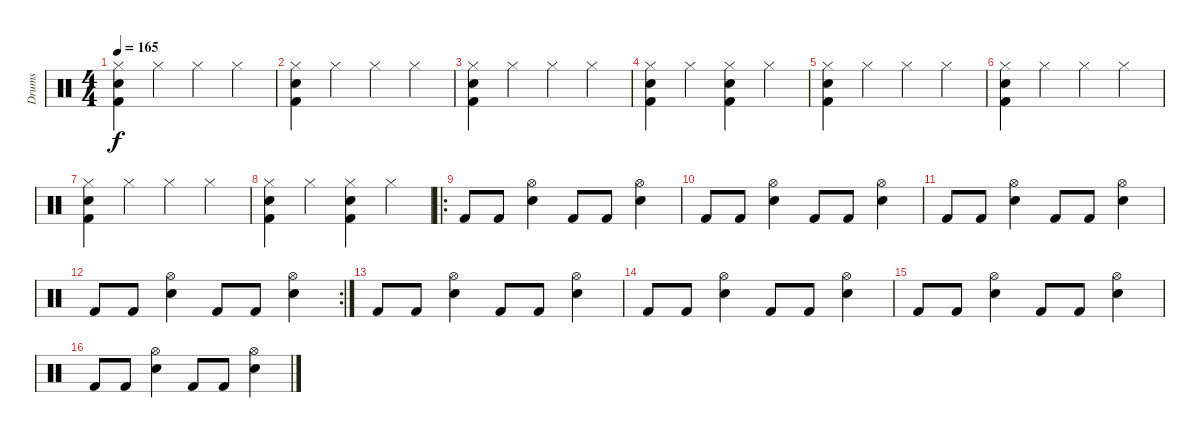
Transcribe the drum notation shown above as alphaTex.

\track ("Drums" "Drums") {instrument percussion}
\staff {score}
\articulation defaults
\ts (4 4)
\tempo 165
\clef neutral
\ks c
("Kick (hit) 2" "Snare (hit) 2" "Hi-Hat (closed)").4{dy f} "Hi-Hat (closed)".4 "Hi-Hat (closed)".4 "Hi-Hat (closed)".4 |
("Kick (hit) 2" "Snare (hit) 2" "Hi-Hat (closed)").4 "Hi-Hat (closed)".4 "Hi-Hat (closed)".4 "Hi-Hat (closed)".4 |
("Kick (hit) 2" "Snare (hit) 2" "Hi-Hat (closed)").4 "Hi-Hat (closed)".4 "Hi-Hat (closed)".4 "Hi-Hat (closed)".4 |
("Kick (hit) 2" "Snare (hit) 2" "Hi-Hat (closed)").4 "Hi-Hat (closed)".4 ("Kick (hit) 2" "Snare (hit) 2" "Hi-Hat (closed)").4 "Hi-Hat (closed)".4 |
("Kick (hit) 2" "Snare (hit) 2" "Hi-Hat (closed)").4 "Hi-Hat (closed)".4 "Hi-Hat (closed)".4 "Hi-Hat (closed)".4 |
("Kick (hit) 2" "Snare (hit) 2" "Hi-Hat (closed)").4 "Hi-Hat (closed)".4 "Hi-Hat (closed)".4 "Hi-Hat (closed)".4 |
("Kick (hit) 2" "Snare (hit) 2" "Hi-Hat (closed)").4 "Hi-Hat (closed)".4 "Hi-Hat (closed)".4 "Hi-Hat (closed)".4 |
("Kick (hit) 2" "Snare (hit) 2" "Hi-Hat (closed)").4 "Hi-Hat (closed)".4 ("Kick (hit) 2" "Snare (hit) 2" "Hi-Hat (closed)").4 "Hi-Hat (closed)".4 |
\ro "Kick (hit) 2".8 "Kick (hit) 2".8
("Snare (hit) 2" "Hi-Hat (open)").4 "Kick (hit) 2".8 "Kick (hit) 2".8 ("Snare (hit) 2" "Hi-Hat (open)").4 |
"Kick (hit) 2".8 "Kick (hit) 2".8 ("Snare (hit) 2" "Hi-Hat (open)").4 "Kick (hit) 2".8 "Kick (hit) 2".8 ("Snare (hit) 2" "Hi-Hat (open)").4 |
"Kick (hit) 2".8 "Kick (hit) 2".8 ("Snare (hit) 2" "Hi-Hat (open)").4 "Kick (hit) 2".8 "Kick (hit) 2".8 ("Snare (hit) 2" "Hi-Hat (open)").4 |
\rc 2 "Kick (hit) 2".8 "Kick (hit) 2".8
("Snare (hit) 2" "Hi-Hat (open)").4 "Kick (hit) 2".8 "Kick (hit) 2".8 ("Snare (hit) 2" "Hi-Hat (open)").4 |
"Kick (hit) 2".8 "Kick (hit) 2".8 ("Snare (hit) 2" "Hi-Hat (open)").4 "Kick (hit) 2".8 "Kick (hit) 2".8 ("Snare (hit) 2" "Hi-Hat (open)").4 |
"Kick (hit) 2".8 "Kick (hit) 2".8 ("Snare (hit) 2" "Hi-Hat (open)").4 "Kick (hit) 2".8 "Kick (hit) 2".8 ("Snare (hit) 2" "Hi-Hat (open)").4 |
"Kick (hit) 2".8 "Kick (hit) 2".8 ("Snare (hit) 2" "Hi-Hat (open)").4 "Kick (hit) 2".8 "Kick (hit) 2".8 ("Snare (hit) 2" "Hi-Hat (open)").4 |
"Kick (hit) 2".8 "Kick (hit) 2".8 ("Snare (hit) 2" "Hi-Hat (open)").4 "Kick (hit) 2".8 "Kick (hit) 2".8 ("Snare (hit) 2" "Hi-Hat (open)").4
